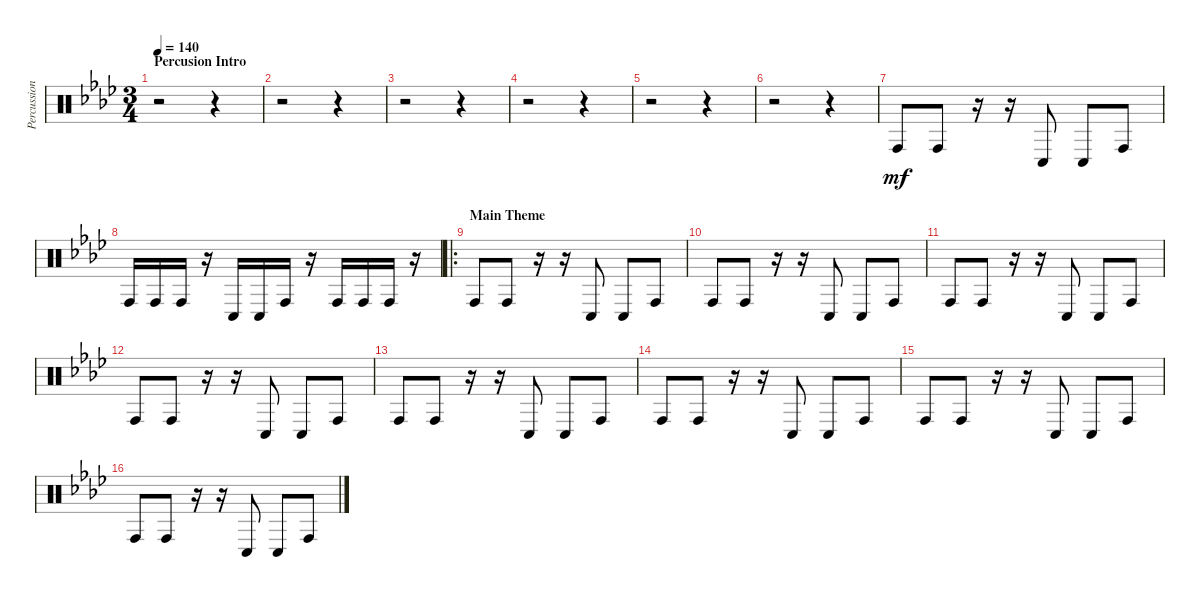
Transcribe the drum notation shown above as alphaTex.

\track ("Percussion" "Percussion") {instrument percussion}
\staff {score}
\articulation defaults
\ts (3 4)
\section ("" "Percusion Intro")
\tempo 140
\clef neutral
\ks fminor
r.2{dy mf} r.4 |
r.2 r.4 |
r.2 r.4 |
r.2 r.4 |
r.2 r.4 |
r.2 r.4 |
"Conga high (hit)".8 "Conga high (hit)".8 r.16 r.16 "Conga low (hit)".8 "Conga low (hit)".8 "Conga high (hit)".8 |
"Conga high (hit)".16 "Conga high (hit)".16 "Conga high (hit)".16 r.16 "Conga low (hit)".16 "Conga low (hit)".16 "Conga high (hit)".16 r.16 "Conga high (hit)".16 "Conga high (hit)".16 "Conga high (hit)".16 r.16 |
\ro
\section ("" "Main Theme")
"Conga high (hit)".8 "Conga high (hit)".8 r.16 r.16 "Conga low (hit)".8 "Conga low (hit)".8 "Conga high (hit)".8 |
"Conga high (hit)".8 "Conga high (hit)".8 r.16 r.16 "Conga low (hit)".8 "Conga low (hit)".8 "Conga high (hit)".8 |
"Conga high (hit)".8 "Conga high (hit)".8 r.16 r.16 "Conga low (hit)".8 "Conga low (hit)".8 "Conga high (hit)".8 |
"Conga high (hit)".8 "Conga high (hit)".8 r.16 r.16 "Conga low (hit)".8 "Conga low (hit)".8 "Conga high (hit)".8 |
"Conga high (hit)".8 "Conga high (hit)".8 r.16 r.16 "Conga low (hit)".8 "Conga low (hit)".8 "Conga high (hit)".8 |
"Conga high (hit)".8 "Conga high (hit)".8 r.16 r.16 "Conga low (hit)".8 "Conga low (hit)".8 "Conga high (hit)".8 |
"Conga high (hit)".8 "Conga high (hit)".8 r.16 r.16 "Conga low (hit)".8 "Conga low (hit)".8 "Conga high (hit)".8 |
"Conga high (hit)".8 "Conga high (hit)".8 r.16 r.16 "Conga low (hit)".8 "Conga low (hit)".8 "Conga high (hit)".8
